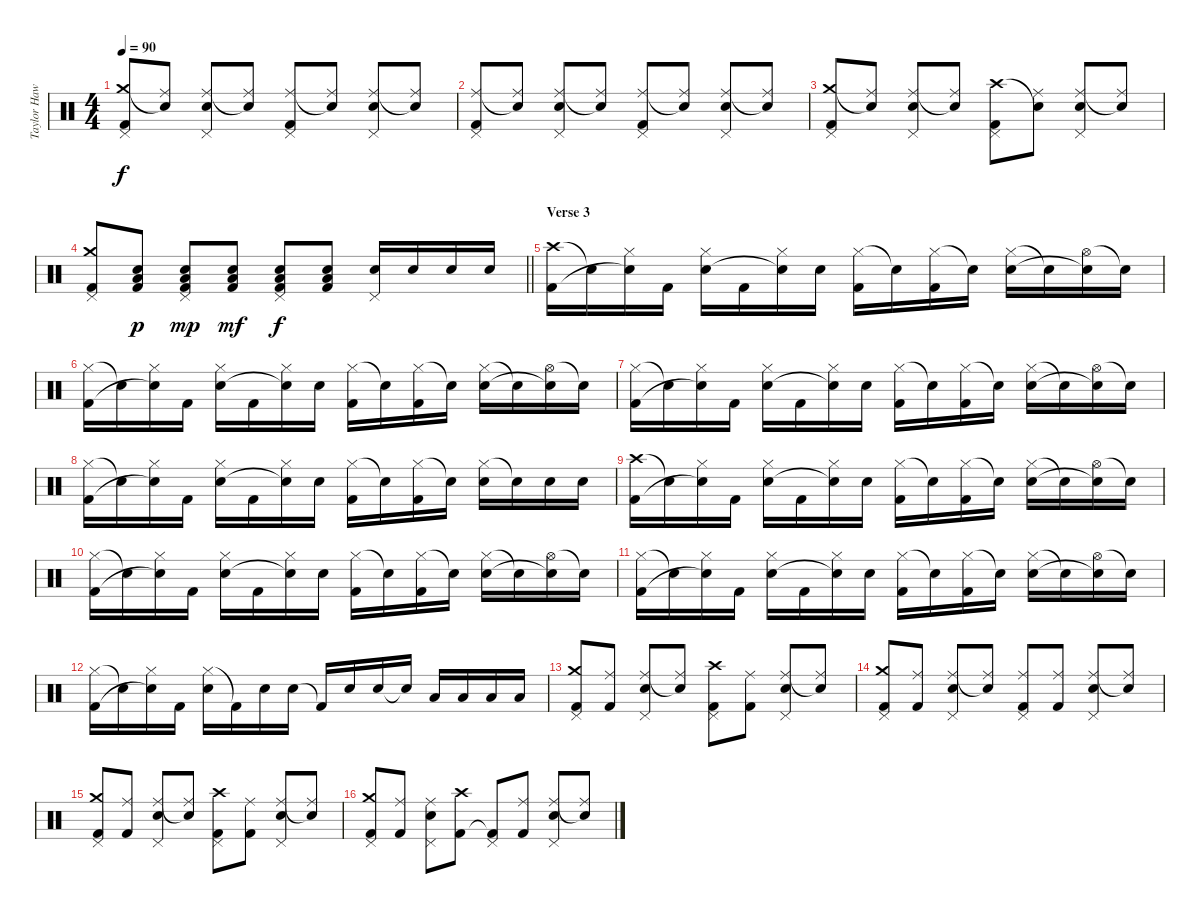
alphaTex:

\track ("Taylor Hawkins " "Taylor Haw") {instrument percussion}
\staff {score}
\articulation defaults
\ts (4 4)
\tempo 90
\clef neutral
\ks c
("Pedal Hi-Hat (hit)" "Crash medium (hit)" "Kick (hit) 2").8{dy f} ("Ride (middle)" "Snare (hit)"{t}).8 ("Pedal Hi-Hat (hit)" "Ride (middle)" "Snare (hit) 2").8 ("Ride (middle)" "Snare (hit)"{t}).8 ("Pedal Hi-Hat (hit)" "Ride (middle)" "Kick (hit) 2").8 ("Ride (middle)" "Snare (hit)"{t}).8 ("Pedal Hi-Hat (hit)" "Ride (middle)" "Snare (hit) 2").8 ("Ride (middle)" "Snare (hit)"{t}).8 |
("Pedal Hi-Hat (hit)" "Ride (middle)" "Kick (hit) 2").8 ("Ride (middle)" "Snare (hit)"{t}).8 ("Pedal Hi-Hat (hit)" "Ride (middle)" "Snare (hit) 2").8 ("Ride (middle)" "Snare (hit)"{t}).8 ("Pedal Hi-Hat (hit)" "Ride (middle)" "Kick (hit) 2").8 ("Ride (middle)" "Snare (hit)"{t}).8 ("Pedal Hi-Hat (hit)" "Ride (middle)" "Snare (hit) 2").8 ("Ride (middle)" "Snare (hit)"{t}).8 |
("Pedal Hi-Hat (hit)" "Crash medium (hit)" "Kick (hit) 2").8 ("Ride (middle)" "Snare (hit)"{t}).8 ("Pedal Hi-Hat (hit)" "Ride (middle)" "Snare (hit) 2").8 ("Ride (middle)" "Snare (hit)"{t}).8 ("Pedal Hi-Hat (hit)" "Crash high (hit)" "Kick (hit) 2").8 ("Ride (middle)" "Snare (hit)"{t}).8 ("Pedal Hi-Hat (hit)" "Ride (middle)" "Snare (hit) 2").8 ("Ride (middle)" "Snare (hit)"{t}).8 |
\barLineRight lightlight
("Pedal Hi-Hat (hit)" "Crash medium (hit)" "Kick (hit) 2").8 ("Low Floor Tom (hit)" "Snare (hit) 2" "Kick (hit) 2").8{dy p} ("Pedal Hi-Hat (hit)" "Low Floor Tom (hit)" "Snare (hit) 2" "Kick (hit) 2").8{dy mp} ("Low Floor Tom (hit)" "Snare (hit) 2" "Kick (hit) 2").8{dy mf} ("Pedal Hi-Hat (hit)" "Low Floor Tom (hit)" "Snare (hit) 2" "Kick (hit) 2").8{dy f} ("Low Floor Tom (hit)" "Snare (hit) 2" "Kick (hit) 2").8 ("Pedal Hi-Hat (hit)" "Snare (hit) 2").16 "Snare (hit) 2".16 "Snare (hit) 2".16 "Snare (hit) 2".16 |
\section ("" "Verse 3")
("Crash high (hit)" "Kick (hit) 2").16 "Snare (hit)"{t}.16 ("Hi-Hat (closed)" "Snare (hit)"{t}).16 "Kick (hit) 2".16 ("Hi-Hat (closed)" "Snare (hit) 2").16 "Kick (hit) 2".16 ("Hi-Hat (closed)" "Snare (hit)"{t}).16 "Snare (hit) 2".16 ("Hi-Hat (closed)" "Kick (hit) 2").16 "Snare (hit)"{t}.16 ("Hi-Hat (closed)" "Kick (hit) 2").16 "Snare (hit)"{t}.16 ("Hi-Hat (closed)" "Snare (hit) 2").16 "Snare (hit)"{t}.16 ("Hi-Hat (open)" "Snare (hit)"{t}).16 "Snare (hit)"{t}.16 |
("Hi-Hat (closed)" "Kick (hit) 2").16 "Snare (hit)"{t}.16 ("Hi-Hat (closed)" "Snare (hit)"{t}).16 "Kick (hit) 2".16 ("Hi-Hat (closed)" "Snare (hit) 2").16 "Kick (hit) 2".16 ("Hi-Hat (closed)" "Snare (hit)"{t}).16 "Snare (hit) 2".16 ("Hi-Hat (closed)" "Kick (hit) 2").16 "Snare (hit)"{t}.16 ("Hi-Hat (closed)" "Kick (hit) 2").16 "Snare (hit)"{t}.16 ("Hi-Hat (closed)" "Snare (hit) 2").16 "Snare (hit)"{t}.16 ("Hi-Hat (open)" "Snare (hit)"{t}).16 "Snare (hit)"{t}.16 |
("Hi-Hat (closed)" "Kick (hit) 2").16 "Snare (hit)"{t}.16 ("Hi-Hat (closed)" "Snare (hit)"{t}).16 "Kick (hit) 2".16 ("Hi-Hat (closed)" "Snare (hit) 2").16 "Kick (hit) 2".16 ("Hi-Hat (closed)" "Snare (hit)"{t}).16 "Snare (hit) 2".16 ("Hi-Hat (closed)" "Kick (hit) 2").16 "Snare (hit)"{t}.16 ("Hi-Hat (closed)" "Kick (hit) 2").16 "Snare (hit)"{t}.16 ("Hi-Hat (closed)" "Snare (hit) 2").16 "Snare (hit)"{t}.16 ("Hi-Hat (open)" "Snare (hit)"{t}).16 "Snare (hit)"{t}.16 |
("Hi-Hat (closed)" "Kick (hit) 2").16 "Snare (hit)"{t}.16 ("Hi-Hat (closed)" "Snare (hit)"{t}).16 "Kick (hit) 2".16 ("Hi-Hat (closed)" "Snare (hit) 2").16 "Kick (hit) 2".16 ("Hi-Hat (closed)" "Snare (hit)"{t}).16 "Snare (hit) 2".16 ("Hi-Hat (closed)" "Kick (hit) 2").16 "Snare (hit)"{t}.16 ("Hi-Hat (closed)" "Kick (hit) 2").16 "Snare (hit)"{t}.16 ("Hi-Hat (closed)" "Snare (hit) 2").16 "Snare (hit)"{t}.16 "Snare (hit) 2".16 "Snare (hit) 2".16 |
("Crash high (hit)" "Kick (hit) 2").16 "Snare (hit)"{t}.16 ("Hi-Hat (closed)" "Snare (hit)"{t}).16 "Kick (hit) 2".16 ("Hi-Hat (closed)" "Snare (hit) 2").16 "Kick (hit) 2".16 ("Hi-Hat (closed)" "Snare (hit)"{t}).16 "Snare (hit) 2".16 ("Hi-Hat (closed)" "Kick (hit) 2").16 "Snare (hit)"{t}.16 ("Hi-Hat (closed)" "Kick (hit) 2").16 "Snare (hit)"{t}.16 ("Hi-Hat (closed)" "Snare (hit) 2").16 "Snare (hit)"{t}.16 ("Hi-Hat (open)" "Snare (hit)"{t}).16 "Snare (hit)"{t}.16 |
("Hi-Hat (closed)" "Kick (hit) 2").16 "Snare (hit)"{t}.16 ("Hi-Hat (closed)" "Snare (hit)"{t}).16 "Kick (hit) 2".16 ("Hi-Hat (closed)" "Snare (hit) 2").16 "Kick (hit) 2".16 ("Hi-Hat (closed)" "Snare (hit)"{t}).16 "Snare (hit) 2".16 ("Hi-Hat (closed)" "Kick (hit) 2").16 "Snare (hit)"{t}.16 ("Hi-Hat (closed)" "Kick (hit) 2").16 "Snare (hit)"{t}.16 ("Hi-Hat (closed)" "Snare (hit) 2").16 "Snare (hit)"{t}.16 ("Hi-Hat (open)" "Snare (hit)"{t}).16 "Snare (hit)"{t}.16 |
("Hi-Hat (closed)" "Kick (hit) 2").16 "Snare (hit)"{t}.16 ("Hi-Hat (closed)" "Snare (hit)"{t}).16 "Kick (hit) 2".16 ("Hi-Hat (closed)" "Snare (hit) 2").16 "Kick (hit) 2".16 ("Hi-Hat (closed)" "Snare (hit)"{t}).16 "Snare (hit) 2".16 ("Hi-Hat (closed)" "Kick (hit) 2").16 "Snare (hit)"{t}.16 ("Hi-Hat (closed)" "Kick (hit) 2").16 "Snare (hit)"{t}.16 ("Hi-Hat (closed)" "Snare (hit) 2").16 "Snare (hit)"{t}.16 ("Hi-Hat (open)" "Snare (hit)"{t}).16 "Snare (hit)"{t}.16 |
("Hi-Hat (closed)" "Kick (hit) 2").16 "Snare (hit)"{t}.16 ("Hi-Hat (closed)" "Snare (hit)"{t}).16 "Kick (hit) 2".16 ("Hi-Hat (closed)" "Snare (hit) 2").16 "Kick (hit) 2"{t}.16 "Snare (hit) 2".16 "Snare (hit) 2".16 "Kick (hit) 2"{t}.16 "Snare (hit) 2".16 "Snare (hit) 2".16 "Snare (hit)"{t}.16 "Low Tom (hit)".16 "Low Tom (hit)".16 "Low Floor Tom (hit)".16 "Low Floor Tom (hit)".16 |
("Pedal Hi-Hat (hit)" "Crash medium (hit)" "Kick (hit) 2").8 ("Ride (middle)" "Kick (hit) 2").8 ("Pedal Hi-Hat (hit)" "Ride (middle)" "Snare (hit) 2").8 ("Ride (middle)" "Snare (hit) 2"{t}).8 ("Pedal Hi-Hat (hit)" "Crash high (hit)" "Kick (hit) 2").8 ("Ride (middle)" "Kick (hit) 2").8 ("Pedal Hi-Hat (hit)" "Ride (middle)" "Snare (hit) 2").8 ("Ride (middle)" "Snare (hit)"{t}).8 |
("Pedal Hi-Hat (hit)" "Crash medium (hit)" "Kick (hit) 2").8 ("Ride (middle)" "Kick (hit) 2").8 ("Pedal Hi-Hat (hit)" "Ride (middle)" "Snare (hit) 2").8 ("Ride (middle)" "Snare (hit) 2"{t}).8 ("Pedal Hi-Hat (hit)" "Ride (middle)" "Kick (hit) 2").8 ("Ride (middle)" "Kick (hit) 2").8 ("Pedal Hi-Hat (hit)" "Ride (middle)" "Snare (hit) 2").8 ("Ride (middle)" "Snare (hit)"{t}).8 |
("Pedal Hi-Hat (hit)" "Crash medium (hit)" "Kick (hit) 2").8 ("Ride (middle)" "Kick (hit) 2").8 ("Pedal Hi-Hat (hit)" "Ride (middle)" "Snare (hit) 2").8 ("Ride (middle)" "Snare (hit) 2"{t}).8 ("Pedal Hi-Hat (hit)" "Crash high (hit)" "Kick (hit) 2").8 ("Ride (middle)" "Kick (hit) 2").8 ("Pedal Hi-Hat (hit)" "Ride (middle)" "Snare (hit) 2").8 ("Ride (middle)" "Snare (hit)"{t}).8 |
("Pedal Hi-Hat (hit)" "Crash medium (hit)" "Kick (hit) 2").8 ("Ride (middle)" "Kick (hit) 2").8 ("Pedal Hi-Hat (hit)" "Ride (middle)" "Snare (hit) 2").8 ("Crash high (hit)" "Kick (hit) 2").8 ("Pedal Hi-Hat (hit)" "Kick (hit) 2"{t}).8 ("Ride (middle)" "Kick (hit) 2").8 ("Pedal Hi-Hat (hit)" "Ride (middle)" "Snare (hit) 2").8 ("Ride (middle)" "Snare (hit)"{t}).8
